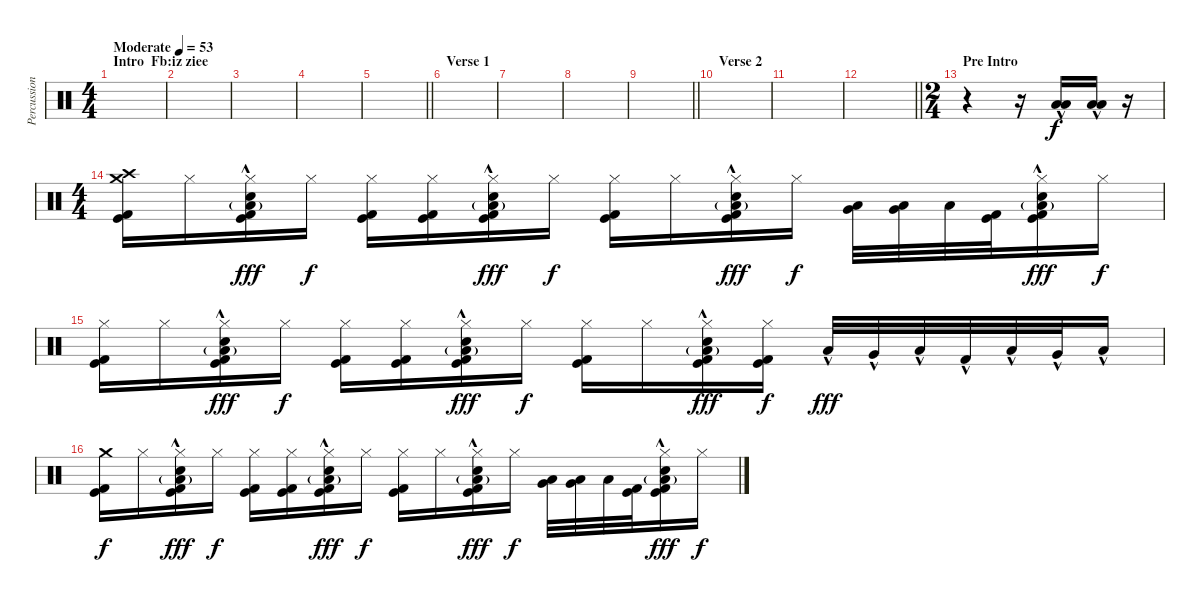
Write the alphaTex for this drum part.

\track ("Percussion" "Percussion") {instrument percussion}
\staff {score}
\articulation defaults
\ts (4 4)
\section ("" "Intro  Fb:iz ziee")
\tempo (53 "Moderate")
\clef neutral
\ks c
|
|
|
|
\barLineRight lightlight
|
\section ("" "Verse 1")
|
|
|
\barLineRight lightlight
|
\section ("" "Verse 2")
|
|
\barLineRight lightlight
|
\ts (2 4)
\section ("" "Pre Intro")
r.4 r.16 ("Low Tom (hit)"{hac} "Low Floor Tom (hit)"{hac}).16 ("Low Tom (hit)"{hac} "Low Floor Tom (hit)"{hac}).16{bd 30} r.16 |
\ts (4 4)
("Crash medium (hit)" "Crash high (hit)" "Kick (hit)" "Kick (hit) 2").16{dy f} "Hi-Hat (closed)".16 ("Hi-Hat (closed)" "Electric Snare (hit)"{hac} "Low Floor Tom (hit)"{g} "Kick (hit)" "Kick (hit) 2"{hac}).16{dy fff} "Hi-Hat (closed)".16{dy f} ("Hi-Hat (closed)" "Kick (hit)" "Kick (hit) 2").16 ("Hi-Hat (closed)" "Kick (hit)" "Kick (hit) 2").16 ("Hi-Hat (closed)" "Electric Snare (hit)"{hac} "Low Floor Tom (hit)"{g} "Kick (hit)" "Kick (hit) 2"{hac}).16{dy fff} "Hi-Hat (closed)".16{dy f} ("Hi-Hat (closed)" "Kick (hit)" "Kick (hit) 2").16 "Hi-Hat (closed)".16 ("Hi-Hat (closed)" "Electric Snare (hit)"{hac} "Low Floor Tom (hit)"{g} "Kick (hit)" "Kick (hit) 2"{hac}).16{dy fff} "Hi-Hat (closed)".16{dy f} ("Very Low Tom (hit)" "Low Tom (hit)").32 ("Low Tom (hit)" "Very Low Tom (hit)").32 "Low Floor Tom (hit)".32 ("Kick (hit)" "Kick (hit) 2").32 ("Hi-Hat (closed)" "Electric Snare (hit)"{hac} "Low Floor Tom (hit)"{g} "Kick (hit)" "Kick (hit) 2"{hac}).16{dy fff} "Hi-Hat (closed)".16{dy f} |
("Hi-Hat (closed)" "Kick (hit)" "Kick (hit) 2").16 "Hi-Hat (closed)".16 ("Hi-Hat (closed)" "Electric Snare (hit)"{hac} "Low Floor Tom (hit)"{g} "Kick (hit)" "Kick (hit) 2"{hac}).16{dy fff} "Hi-Hat (closed)".16{dy f} ("Hi-Hat (closed)" "Kick (hit)" "Kick (hit) 2").16 ("Hi-Hat (closed)" "Kick (hit)" "Kick (hit) 2").16 ("Hi-Hat (closed)" "Electric Snare (hit)"{hac} "Low Floor Tom (hit)"{g} "Kick (hit)" "Kick (hit) 2"{hac}).16{dy fff} "Hi-Hat (closed)".16{dy f} ("Hi-Hat (closed)" "Kick (hit)" "Kick (hit) 2").16 "Hi-Hat (closed)".16 ("Hi-Hat (closed)" "Electric Snare (hit)"{hac} "Low Floor Tom (hit)"{g} "Kick (hit)" "Kick (hit) 2"{hac}).16{dy fff} ("Hi-Hat (closed)" "Kick (hit)" "Kick (hit) 2").16{dy f} "Low Tom (hit)"{hac}.32{dy fff} "Very Low Tom (hit)"{hac}.32 "Low Floor Tom (hit)"{hac}.32 "Kick (hit) 2"{hac}.32 "Low Tom (hit)"{hac}.32 "Very Low Tom (hit)"{hac}.32 "Low Floor Tom (hit)"{hac}.16 |
("Crash medium (hit)" "Kick (hit)" "Kick (hit) 2").16{dy f} "Hi-Hat (closed)".16 ("Hi-Hat (closed)" "Electric Snare (hit)"{hac} "Low Floor Tom (hit)"{g} "Kick (hit)" "Kick (hit) 2"{hac}).16{dy fff} "Hi-Hat (closed)".16{dy f} ("Hi-Hat (closed)" "Kick (hit)" "Kick (hit) 2").16 ("Hi-Hat (closed)" "Kick (hit)" "Kick (hit) 2").16 ("Hi-Hat (closed)" "Electric Snare (hit)"{hac} "Low Floor Tom (hit)"{g} "Kick (hit)" "Kick (hit) 2"{hac}).16{dy fff} "Hi-Hat (closed)".16{dy f} ("Hi-Hat (closed)" "Kick (hit)" "Kick (hit) 2").16 "Hi-Hat (closed)".16 ("Hi-Hat (closed)" "Electric Snare (hit)"{hac} "Low Floor Tom (hit)"{g} "Kick (hit)" "Kick (hit) 2"{hac}).16{dy fff} "Hi-Hat (closed)".16{dy f} ("Very Low Tom (hit)" "Low Tom (hit)").32 ("Low Tom (hit)" "Very Low Tom (hit)").32 "Low Floor Tom (hit)".32 ("Kick (hit)" "Kick (hit) 2").32 ("Hi-Hat (closed)" "Electric Snare (hit)"{hac} "Low Floor Tom (hit)"{g} "Kick (hit)" "Kick (hit) 2"{hac}).16{dy fff} "Hi-Hat (closed)".16{dy f}
